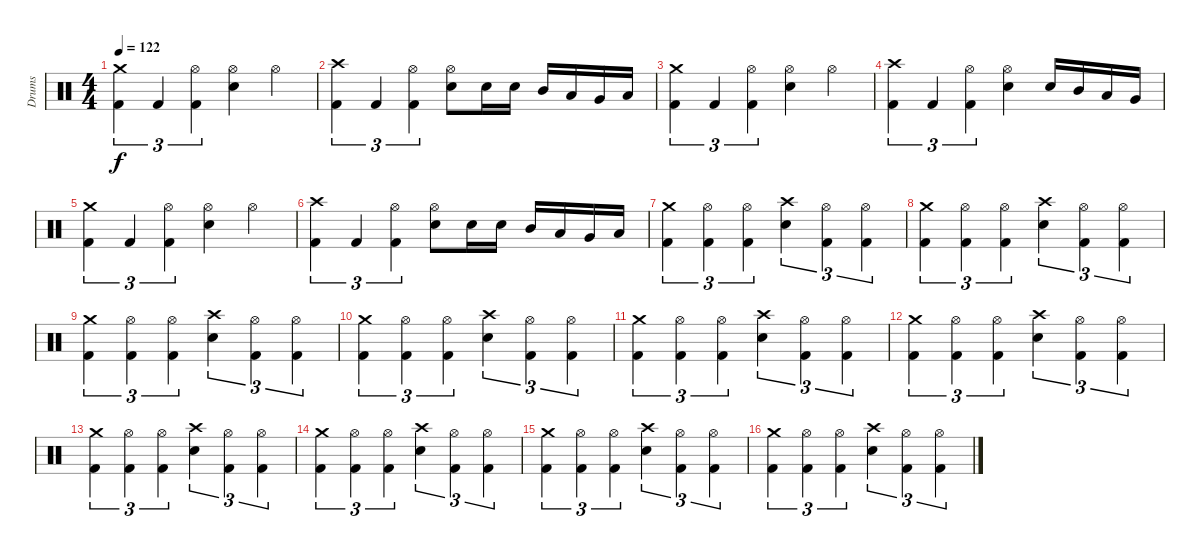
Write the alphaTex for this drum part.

\track ("Drums" "Drums") {instrument percussion}
\staff {score}
\articulation defaults
\ts (4 4)
\tempo 122
\clef neutral
\ks c
("Crash medium (hit)" "Kick (hit) 2").4{tu (3 2) dy f} "Kick (hit) 2".4{tu (3 2)} ("Hi-Hat (open)" "Kick (hit) 2").4{tu (3 2)} ("Hi-Hat (open)" "Electric Snare (hit)").4 "Hi-Hat (open)".4 |
("Crash high (hit)" "Kick (hit) 2").4{tu (3 2)} "Kick (hit) 2".4{tu (3 2)} ("Hi-Hat (open)" "Kick (hit) 2").4{tu (3 2)} ("Hi-Hat (open)" "Electric Snare (hit)").8 "Electric Snare (hit)".16 "Electric Snare (hit)".16 "Mid Tom (hit)".16 "Low Tom (hit)".16 "Very Low Tom (hit)".16 "Low Floor Tom (hit)".16 |
("Crash medium (hit)" "Kick (hit) 2").4{tu (3 2)} "Kick (hit) 2".4{tu (3 2)} ("Hi-Hat (open)" "Kick (hit) 2").4{tu (3 2)} ("Hi-Hat (open)" "Electric Snare (hit)").4 "Hi-Hat (open)".4 |
("Crash high (hit)" "Kick (hit) 2").4{tu (3 2)} "Kick (hit) 2".4{tu (3 2)} ("Hi-Hat (open)" "Kick (hit) 2").4{tu (3 2)} ("Hi-Hat (open)" "Electric Snare (hit)").4 "Electric Snare (hit)".16 "Mid Tom (hit)".16 "Low Tom (hit)".16 "Very Low Tom (hit)".16 |
("Crash medium (hit)" "Kick (hit) 2").4{tu (3 2)} "Kick (hit) 2".4{tu (3 2)} ("Hi-Hat (open)" "Kick (hit) 2").4{tu (3 2)} ("Hi-Hat (open)" "Electric Snare (hit)").4 "Hi-Hat (open)".4 |
("Crash high (hit)" "Kick (hit) 2").4{tu (3 2)} "Kick (hit) 2".4{tu (3 2)} ("Hi-Hat (open)" "Kick (hit) 2").4{tu (3 2)} ("Hi-Hat (open)" "Electric Snare (hit)").8 "Electric Snare (hit)".16 "Electric Snare (hit)".16 "Mid Tom (hit)".16 "Low Tom (hit)".16 "Very Low Tom (hit)".16 "Low Floor Tom (hit)".16 |
("Crash medium (hit)" "Kick (hit) 2").4{tu (3 2)} ("Hi-Hat (open)" "Kick (hit) 2").4{tu (3 2)} ("Hi-Hat (open)" "Kick (hit) 2").4{tu (3 2)} ("Crash high (hit)" "Electric Snare (hit)").4{tu (3 2)} ("Hi-Hat (open)" "Kick (hit) 2").4{tu (3 2)} ("Hi-Hat (open)" "Kick (hit) 2").4{tu (3 2)} |
("Crash medium (hit)" "Kick (hit) 2").4{tu (3 2)} ("Hi-Hat (open)" "Kick (hit) 2").4{tu (3 2)} ("Hi-Hat (open)" "Kick (hit) 2").4{tu (3 2)} ("Crash high (hit)" "Electric Snare (hit)").4{tu (3 2)} ("Hi-Hat (open)" "Kick (hit) 2").4{tu (3 2)} ("Hi-Hat (open)" "Kick (hit) 2").4{tu (3 2)} |
("Crash medium (hit)" "Kick (hit) 2").4{tu (3 2)} ("Hi-Hat (open)" "Kick (hit) 2").4{tu (3 2)} ("Hi-Hat (open)" "Kick (hit) 2").4{tu (3 2)} ("Crash high (hit)" "Electric Snare (hit)").4{tu (3 2)} ("Hi-Hat (open)" "Kick (hit) 2").4{tu (3 2)} ("Hi-Hat (open)" "Kick (hit) 2").4{tu (3 2)} |
("Crash medium (hit)" "Kick (hit) 2").4{tu (3 2)} ("Hi-Hat (open)" "Kick (hit) 2").4{tu (3 2)} ("Hi-Hat (open)" "Kick (hit) 2").4{tu (3 2)} ("Crash high (hit)" "Electric Snare (hit)").4{tu (3 2)} ("Hi-Hat (open)" "Kick (hit) 2").4{tu (3 2)} ("Hi-Hat (open)" "Kick (hit) 2").4{tu (3 2)} |
("Crash medium (hit)" "Kick (hit) 2").4{tu (3 2)} ("Hi-Hat (open)" "Kick (hit) 2").4{tu (3 2)} ("Hi-Hat (open)" "Kick (hit) 2").4{tu (3 2)} ("Crash high (hit)" "Electric Snare (hit)").4{tu (3 2)} ("Hi-Hat (open)" "Kick (hit) 2").4{tu (3 2)} ("Hi-Hat (open)" "Kick (hit) 2").4{tu (3 2)} |
("Crash medium (hit)" "Kick (hit) 2").4{tu (3 2)} ("Hi-Hat (open)" "Kick (hit) 2").4{tu (3 2)} ("Hi-Hat (open)" "Kick (hit) 2").4{tu (3 2)} ("Crash high (hit)" "Electric Snare (hit)").4{tu (3 2)} ("Hi-Hat (open)" "Kick (hit) 2").4{tu (3 2)} ("Hi-Hat (open)" "Kick (hit) 2").4{tu (3 2)} |
("Crash medium (hit)" "Kick (hit) 2").4{tu (3 2)} ("Hi-Hat (open)" "Kick (hit) 2").4{tu (3 2)} ("Hi-Hat (open)" "Kick (hit) 2").4{tu (3 2)} ("Crash high (hit)" "Electric Snare (hit)").4{tu (3 2)} ("Hi-Hat (open)" "Kick (hit) 2").4{tu (3 2)} ("Hi-Hat (open)" "Kick (hit) 2").4{tu (3 2)} |
("Crash medium (hit)" "Kick (hit) 2").4{tu (3 2)} ("Hi-Hat (open)" "Kick (hit) 2").4{tu (3 2)} ("Hi-Hat (open)" "Kick (hit) 2").4{tu (3 2)} ("Crash high (hit)" "Electric Snare (hit)").4{tu (3 2)} ("Hi-Hat (open)" "Kick (hit) 2").4{tu (3 2)} ("Hi-Hat (open)" "Kick (hit) 2").4{tu (3 2)} |
("Crash medium (hit)" "Kick (hit) 2").4{tu (3 2)} ("Hi-Hat (open)" "Kick (hit) 2").4{tu (3 2)} ("Hi-Hat (open)" "Kick (hit) 2").4{tu (3 2)} ("Crash high (hit)" "Electric Snare (hit)").4{tu (3 2)} ("Hi-Hat (open)" "Kick (hit) 2").4{tu (3 2)} ("Hi-Hat (open)" "Kick (hit) 2").4{tu (3 2)} |
("Crash medium (hit)" "Kick (hit) 2").4{tu (3 2)} ("Hi-Hat (open)" "Kick (hit) 2").4{tu (3 2)} ("Hi-Hat (open)" "Kick (hit) 2").4{tu (3 2)} ("Crash high (hit)" "Electric Snare (hit)").4{tu (3 2)} ("Hi-Hat (open)" "Kick (hit) 2").4{tu (3 2)} ("Hi-Hat (open)" "Kick (hit) 2").4{tu (3 2)}
